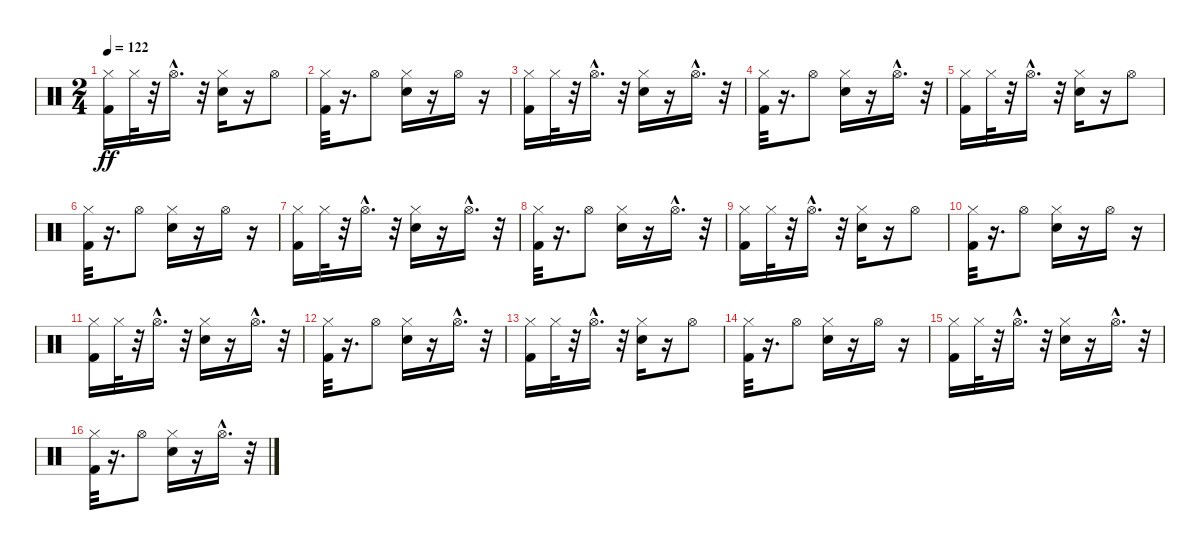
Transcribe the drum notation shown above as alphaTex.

\track "" {instrument percussion}
\staff {score}
\articulation defaults
\ts (2 4)
\tempo 122
\clef neutral
\ks c
("Kick (hit) 2" "Hi-Hat (closed)").16{dy ff} "Hi-Hat (closed)".32 r.32 "Hi-Hat (open)"{hac}.16{d} r.32 ("Snare (hit) 2" "Hi-Hat (closed)").16 r.16 "Hi-Hat (open)".8 |
("Kick (hit) 2" "Hi-Hat (closed)").32 r.16{d} "Hi-Hat (open)".8 ("Snare (hit) 2" "Hi-Hat (closed)").16 r.16 "Hi-Hat (open)".16 r.16 |
("Kick (hit) 2" "Hi-Hat (closed)").16 "Hi-Hat (closed)".32 r.32 "Hi-Hat (open)"{hac}.16{d} r.32 ("Snare (hit) 2" "Hi-Hat (closed)").16 r.16 "Hi-Hat (open)"{hac}.16{d} r.32 |
("Kick (hit) 2" "Hi-Hat (closed)").32 r.16{d} "Hi-Hat (open)".8 ("Snare (hit) 2" "Hi-Hat (closed)").16 r.16 "Hi-Hat (open)"{hac}.16{d} r.32 |
("Kick (hit) 2" "Hi-Hat (closed)").16 "Hi-Hat (closed)".32 r.32 "Hi-Hat (open)"{hac}.16{d} r.32 ("Snare (hit) 2" "Hi-Hat (closed)").16 r.16 "Hi-Hat (open)".8 |
("Kick (hit) 2" "Hi-Hat (closed)").32 r.16{d} "Hi-Hat (open)".8 ("Snare (hit) 2" "Hi-Hat (closed)").16 r.16 "Hi-Hat (open)".16 r.16 |
("Kick (hit) 2" "Hi-Hat (closed)").16 "Hi-Hat (closed)".32 r.32 "Hi-Hat (open)"{hac}.16{d} r.32 ("Snare (hit) 2" "Hi-Hat (closed)").16 r.16 "Hi-Hat (open)"{hac}.16{d} r.32 |
("Kick (hit) 2" "Hi-Hat (closed)").32 r.16{d} "Hi-Hat (open)".8 ("Snare (hit) 2" "Hi-Hat (closed)").16 r.16 "Hi-Hat (open)"{hac}.16{d} r.32 |
("Kick (hit) 2" "Hi-Hat (closed)").16 "Hi-Hat (closed)".32 r.32 "Hi-Hat (open)"{hac}.16{d} r.32 ("Snare (hit) 2" "Hi-Hat (closed)").16 r.16 "Hi-Hat (open)".8 |
("Kick (hit) 2" "Hi-Hat (closed)").32 r.16{d} "Hi-Hat (open)".8 ("Snare (hit) 2" "Hi-Hat (closed)").16 r.16 "Hi-Hat (open)".16 r.16 |
("Kick (hit) 2" "Hi-Hat (closed)").16 "Hi-Hat (closed)".32 r.32 "Hi-Hat (open)"{hac}.16{d} r.32 ("Snare (hit) 2" "Hi-Hat (closed)").16 r.16 "Hi-Hat (open)"{hac}.16{d} r.32 |
("Kick (hit) 2" "Hi-Hat (closed)").32 r.16{d} "Hi-Hat (open)".8 ("Snare (hit) 2" "Hi-Hat (closed)").16 r.16 "Hi-Hat (open)"{hac}.16{d} r.32 |
("Kick (hit) 2" "Hi-Hat (closed)").16 "Hi-Hat (closed)".32 r.32 "Hi-Hat (open)"{hac}.16{d} r.32 ("Snare (hit) 2" "Hi-Hat (closed)").16 r.16 "Hi-Hat (open)".8 |
("Kick (hit) 2" "Hi-Hat (closed)").32 r.16{d} "Hi-Hat (open)".8 ("Snare (hit) 2" "Hi-Hat (closed)").16 r.16 "Hi-Hat (open)".16 r.16 |
("Kick (hit) 2" "Hi-Hat (closed)").16 "Hi-Hat (closed)".32 r.32 "Hi-Hat (open)"{hac}.16{d} r.32 ("Snare (hit) 2" "Hi-Hat (closed)").16 r.16 "Hi-Hat (open)"{hac}.16{d} r.32 |
("Kick (hit) 2" "Hi-Hat (closed)").32 r.16{d} "Hi-Hat (open)".8 ("Snare (hit) 2" "Hi-Hat (closed)").16 r.16 "Hi-Hat (open)"{hac}.16{d} r.32
